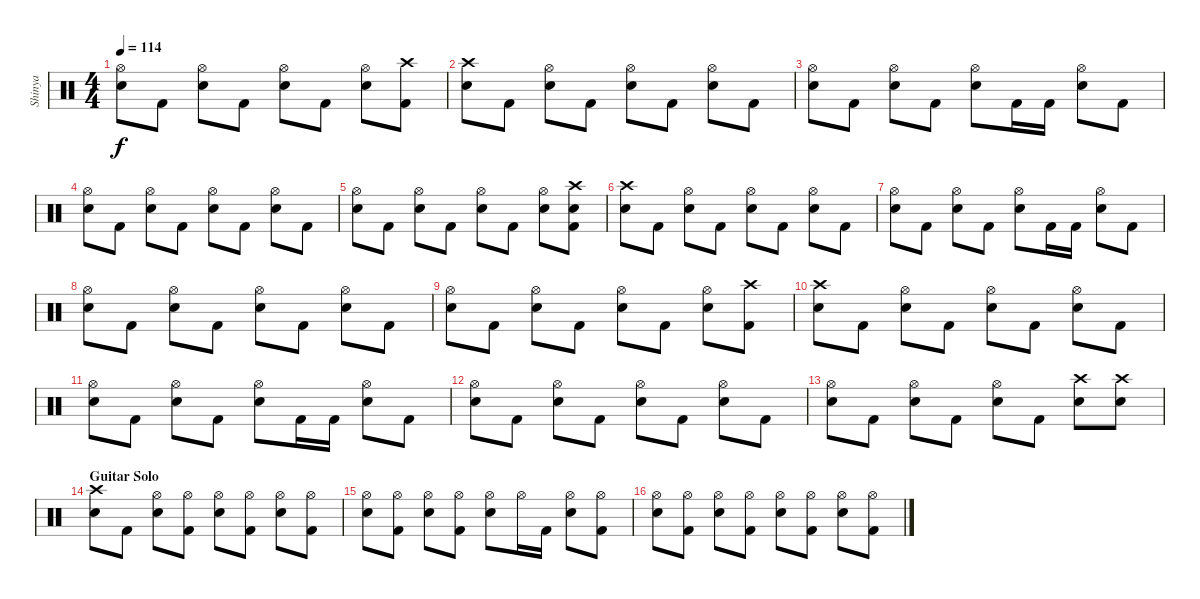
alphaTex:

\track ("Shinya" "Shinya") {instrument percussion}
\staff {score}
\articulation defaults
\ts (4 4)
\tempo 114
\clef neutral
\ks c
("Snare (hit) 2" "Hi-Hat (open)").8{dy f} "Kick (hit) 2".8 ("Hi-Hat (open)" "Snare (hit) 2").8 "Kick (hit) 2".8 ("Hi-Hat (open)" "Snare (hit) 2").8 "Kick (hit) 2".8 ("Snare (hit) 2" "Hi-Hat (open)").8 ("Kick (hit) 2" "Crash high (hit)").8 |
("Crash high (hit)" "Snare (hit) 2").8 "Kick (hit) 2".8 ("Hi-Hat (open)" "Snare (hit) 2").8 "Kick (hit) 2".8 ("Hi-Hat (open)" "Snare (hit) 2").8 "Kick (hit) 2".8 ("Hi-Hat (open)" "Snare (hit) 2").8 "Kick (hit) 2".8 |
("Snare (hit) 2" "Hi-Hat (open)").8 "Kick (hit) 2".8 ("Hi-Hat (open)" "Snare (hit) 2").8 "Kick (hit) 2".8 ("Hi-Hat (open)" "Snare (hit) 2").8 "Kick (hit) 2".16 "Kick (hit) 2".16 ("Hi-Hat (open)" "Snare (hit) 2").8 "Kick (hit) 2".8 |
("Snare (hit) 2" "Hi-Hat (open)").8 "Kick (hit) 2".8 ("Hi-Hat (open)" "Snare (hit) 2").8 "Kick (hit) 2".8 ("Hi-Hat (open)" "Snare (hit) 2").8 "Kick (hit) 2".8 ("Hi-Hat (open)" "Snare (hit) 2").8 "Kick (hit) 2".8 |
("Snare (hit) 2" "Hi-Hat (open)").8 "Kick (hit) 2".8 ("Hi-Hat (open)" "Snare (hit) 2").8 "Kick (hit) 2".8 ("Hi-Hat (open)" "Snare (hit) 2").8 "Kick (hit) 2".8 ("Snare (hit) 2" "Hi-Hat (open)").8 ("Kick (hit) 2" "Crash high (hit)" "Snare (hit) 2").8 |
("Crash high (hit)" "Snare (hit) 2").8 "Kick (hit) 2".8 ("Hi-Hat (open)" "Snare (hit) 2").8 "Kick (hit) 2".8 ("Hi-Hat (open)" "Snare (hit) 2").8 "Kick (hit) 2".8 ("Hi-Hat (open)" "Snare (hit) 2").8 "Kick (hit) 2".8 |
("Snare (hit) 2" "Hi-Hat (open)").8 "Kick (hit) 2".8 ("Hi-Hat (open)" "Snare (hit) 2").8 "Kick (hit) 2".8 ("Hi-Hat (open)" "Snare (hit) 2").8 "Kick (hit) 2".16 "Kick (hit) 2".16 ("Hi-Hat (open)" "Snare (hit) 2").8 "Kick (hit) 2".8 |
("Snare (hit) 2" "Hi-Hat (open)").8 "Kick (hit) 2".8 ("Hi-Hat (open)" "Snare (hit) 2").8 "Kick (hit) 2".8 ("Hi-Hat (open)" "Snare (hit) 2").8 "Kick (hit) 2".8 ("Hi-Hat (open)" "Snare (hit) 2").8 "Kick (hit) 2".8 |
("Snare (hit) 2" "Hi-Hat (open)").8 "Kick (hit) 2".8 ("Hi-Hat (open)" "Snare (hit) 2").8 "Kick (hit) 2".8 ("Hi-Hat (open)" "Snare (hit) 2").8 "Kick (hit) 2".8 ("Snare (hit) 2" "Hi-Hat (open)").8 ("Kick (hit) 2" "Crash high (hit)").8 |
("Crash high (hit)" "Snare (hit) 2").8 "Kick (hit) 2".8 ("Hi-Hat (open)" "Snare (hit) 2").8 "Kick (hit) 2".8 ("Hi-Hat (open)" "Snare (hit) 2").8 "Kick (hit) 2".8 ("Hi-Hat (open)" "Snare (hit) 2").8 "Kick (hit) 2".8 |
("Snare (hit) 2" "Hi-Hat (open)").8 "Kick (hit) 2".8 ("Hi-Hat (open)" "Snare (hit) 2").8 "Kick (hit) 2".8 ("Hi-Hat (open)" "Snare (hit) 2").8 "Kick (hit) 2".16 "Kick (hit) 2".16 ("Hi-Hat (open)" "Snare (hit) 2").8 "Kick (hit) 2".8 |
("Snare (hit) 2" "Hi-Hat (open)").8 "Kick (hit) 2".8 ("Hi-Hat (open)" "Snare (hit) 2").8 "Kick (hit) 2".8 ("Hi-Hat (open)" "Snare (hit) 2").8 "Kick (hit) 2".8 ("Hi-Hat (open)" "Snare (hit) 2").8 "Kick (hit) 2".8 |
("Snare (hit) 2" "Hi-Hat (open)").8 "Kick (hit) 2".8 ("Hi-Hat (open)" "Snare (hit) 2").8 "Kick (hit) 2".8 ("Hi-Hat (open)" "Snare (hit) 2").8 "Kick (hit) 2".8 ("Snare (hit) 2" "Crash high (hit)").8 ("Crash high (hit)" "Snare (hit) 2").8 |
\section ("" "Guitar Solo")
("Crash high (hit)" "Snare (hit) 2").8 "Kick (hit) 2".8 ("Hi-Hat (open)" "Snare (hit) 2").8 ("Hi-Hat (open)" "Kick (hit) 2").8 ("Hi-Hat (open)" "Snare (hit) 2").8 ("Hi-Hat (open)" "Kick (hit) 2").8 ("Hi-Hat (open)" "Snare (hit) 2").8 ("Hi-Hat (open)" "Kick (hit) 2").8 |
("Hi-Hat (open)" "Snare (hit) 2").8 ("Hi-Hat (open)" "Kick (hit) 2").8 ("Hi-Hat (open)" "Snare (hit) 2").8 ("Hi-Hat (open)" "Kick (hit) 2").8 ("Hi-Hat (open)" "Snare (hit) 2").8 "Hi-Hat (open)".16 "Kick (hit) 2".16 ("Hi-Hat (open)" "Snare (hit) 2").8 ("Hi-Hat (open)" "Kick (hit) 2").8 |
("Hi-Hat (open)" "Snare (hit) 2").8 ("Hi-Hat (open)" "Kick (hit) 2").8 ("Hi-Hat (open)" "Snare (hit) 2").8 ("Hi-Hat (open)" "Kick (hit) 2").8 ("Hi-Hat (open)" "Snare (hit) 2").8 ("Hi-Hat (open)" "Kick (hit) 2").8 ("Hi-Hat (open)" "Snare (hit) 2").8 ("Hi-Hat (open)" "Kick (hit) 2").8
